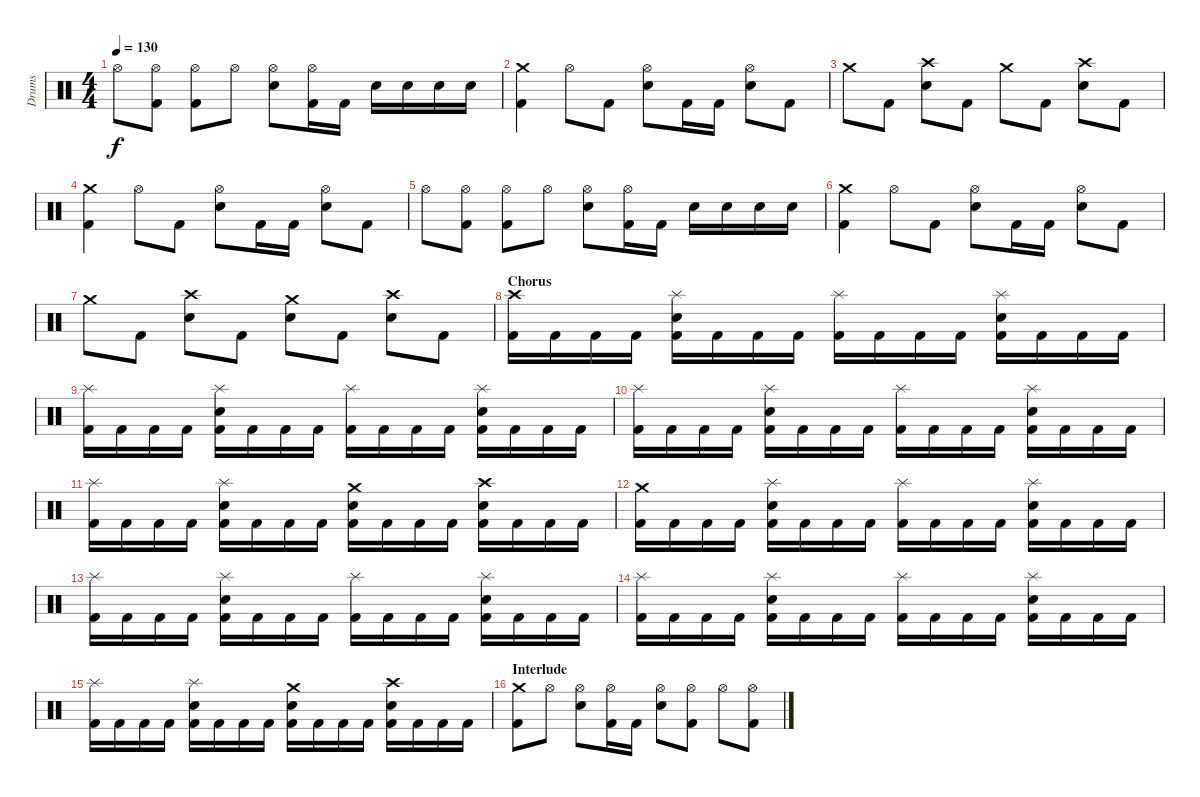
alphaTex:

\track ("Drums" "Drums") {instrument percussion}
\staff {score}
\articulation defaults
\ts (4 4)
\tempo 130
\clef neutral
\ks c "Hi-Hat (open)".8{dy f}
("Kick (hit) 2" "Hi-Hat (open)").8 ("Kick (hit) 2" "Hi-Hat (open)").8 "Hi-Hat (open)".8 ("Electric Snare (hit)" "Hi-Hat (open)").8 ("Kick (hit) 2" "Hi-Hat (open)").16 "Kick (hit) 2".16 "Electric Snare (hit)".16 "Electric Snare (hit)".16 "Electric Snare (hit)".16 "Electric Snare (hit)".16 |
("Kick (hit) 2" "Crash medium (hit)").4 "Hi-Hat (open)".8 "Kick (hit) 2".8 ("Electric Snare (hit)" "Hi-Hat (open)").8 "Kick (hit) 2".16 "Kick (hit) 2".16 ("Electric Snare (hit)" "Hi-Hat (open)").8 "Kick (hit) 2".8 |
"Crash medium (hit)".8 "Kick (hit) 2".8 ("Electric Snare (hit)" "Crash high (hit)").8 "Kick (hit) 2".8 "Crash medium (hit)".8 "Kick (hit) 2".8 ("Electric Snare (hit)" "Crash high (hit)").8 "Kick (hit) 2".8 |
("Kick (hit) 2" "Crash medium (hit)").4 "Hi-Hat (open)".8 "Kick (hit) 2".8 ("Electric Snare (hit)" "Hi-Hat (open)").8 "Kick (hit) 2".16 "Kick (hit) 2".16 ("Electric Snare (hit)" "Hi-Hat (open)").8 "Kick (hit) 2".8 |
"Hi-Hat (open)".8 ("Kick (hit) 2" "Hi-Hat (open)").8 ("Kick (hit) 2" "Hi-Hat (open)").8 "Hi-Hat (open)".8 ("Electric Snare (hit)" "Hi-Hat (open)").8 ("Kick (hit) 2" "Hi-Hat (open)").16 "Kick (hit) 2".16 "Electric Snare (hit)".16 "Electric Snare (hit)".16 "Electric Snare (hit)".16 "Electric Snare (hit)".16 |
("Kick (hit) 2" "Crash medium (hit)").4 "Hi-Hat (open)".8 "Kick (hit) 2".8 ("Electric Snare (hit)" "Hi-Hat (open)").8 "Kick (hit) 2".16 "Kick (hit) 2".16 ("Electric Snare (hit)" "Hi-Hat (open)").8 "Kick (hit) 2".8 |
"Crash medium (hit)".8 "Kick (hit) 2".8 ("Electric Snare (hit)" "Crash high (hit)").8 "Kick (hit) 2".8 ("Electric Snare (hit)" "Crash medium (hit)").8 "Kick (hit) 2".8 ("Electric Snare (hit)" "Crash high (hit)").8 "Kick (hit) 2".8 |
\section ("" "Chorus")
("Kick (hit) 2" "Crash high (hit)").16 "Kick (hit) 2".16 "Kick (hit) 2".16 "Kick (hit) 2".16 ("Kick (hit) 2" "Electric Snare (hit)" "Splash (hit)").16 "Kick (hit) 2".16 "Kick (hit) 2".16 "Kick (hit) 2".16 ("Kick (hit) 2" "Splash (hit)").16 "Kick (hit) 2".16 "Kick (hit) 2".16 "Kick (hit) 2".16 ("Kick (hit) 2" "Electric Snare (hit)" "Splash (hit)").16 "Kick (hit) 2".16 "Kick (hit) 2".16 "Kick (hit) 2".16 |
("Kick (hit) 2" "Splash (hit)").16 "Kick (hit) 2".16 "Kick (hit) 2".16 "Kick (hit) 2".16 ("Kick (hit) 2" "Electric Snare (hit)" "Splash (hit)").16 "Kick (hit) 2".16 "Kick (hit) 2".16 "Kick (hit) 2".16 ("Kick (hit) 2" "Splash (hit)").16 "Kick (hit) 2".16 "Kick (hit) 2".16 "Kick (hit) 2".16 ("Kick (hit) 2" "Electric Snare (hit)" "Splash (hit)").16 "Kick (hit) 2".16 "Kick (hit) 2".16 "Kick (hit) 2".16 |
("Kick (hit) 2" "Splash (hit)").16 "Kick (hit) 2".16 "Kick (hit) 2".16 "Kick (hit) 2".16 ("Kick (hit) 2" "Electric Snare (hit)" "Splash (hit)").16 "Kick (hit) 2".16 "Kick (hit) 2".16 "Kick (hit) 2".16 ("Kick (hit) 2" "Splash (hit)").16 "Kick (hit) 2".16 "Kick (hit) 2".16 "Kick (hit) 2".16 ("Kick (hit) 2" "Electric Snare (hit)" "Splash (hit)").16 "Kick (hit) 2".16 "Kick (hit) 2".16 "Kick (hit) 2".16 |
("Kick (hit) 2" "Splash (hit)").16 "Kick (hit) 2".16 "Kick (hit) 2".16 "Kick (hit) 2".16 ("Kick (hit) 2" "Electric Snare (hit)" "Splash (hit)").16 "Kick (hit) 2".16 "Kick (hit) 2".16 "Kick (hit) 2".16 ("Kick (hit) 2" "Electric Snare (hit)" "Crash medium (hit)").16 "Kick (hit) 2".16 "Kick (hit) 2".16 "Kick (hit) 2".16 ("Kick (hit) 2" "Electric Snare (hit)" "Crash high (hit)").16 "Kick (hit) 2".16 "Kick (hit) 2".16 "Kick (hit) 2".16 |
("Kick (hit) 2" "Crash medium (hit)").16 "Kick (hit) 2".16 "Kick (hit) 2".16 "Kick (hit) 2".16 ("Kick (hit) 2" "Electric Snare (hit)" "Splash (hit)").16 "Kick (hit) 2".16 "Kick (hit) 2".16 "Kick (hit) 2".16 ("Kick (hit) 2" "Splash (hit)").16 "Kick (hit) 2".16 "Kick (hit) 2".16 "Kick (hit) 2".16 ("Kick (hit) 2" "Electric Snare (hit)" "Splash (hit)").16 "Kick (hit) 2".16 "Kick (hit) 2".16 "Kick (hit) 2".16 |
("Kick (hit) 2" "Splash (hit)").16 "Kick (hit) 2".16 "Kick (hit) 2".16 "Kick (hit) 2".16 ("Kick (hit) 2" "Electric Snare (hit)" "Splash (hit)").16 "Kick (hit) 2".16 "Kick (hit) 2".16 "Kick (hit) 2".16 ("Kick (hit) 2" "Splash (hit)").16 "Kick (hit) 2".16 "Kick (hit) 2".16 "Kick (hit) 2".16 ("Kick (hit) 2" "Electric Snare (hit)" "Splash (hit)").16 "Kick (hit) 2".16 "Kick (hit) 2".16 "Kick (hit) 2".16 |
("Kick (hit) 2" "Splash (hit)").16 "Kick (hit) 2".16 "Kick (hit) 2".16 "Kick (hit) 2".16 ("Kick (hit) 2" "Electric Snare (hit)" "Splash (hit)").16 "Kick (hit) 2".16 "Kick (hit) 2".16 "Kick (hit) 2".16 ("Kick (hit) 2" "Splash (hit)").16 "Kick (hit) 2".16 "Kick (hit) 2".16 "Kick (hit) 2".16 ("Kick (hit) 2" "Electric Snare (hit)" "Splash (hit)").16 "Kick (hit) 2".16 "Kick (hit) 2".16 "Kick (hit) 2".16 |
("Kick (hit) 2" "Splash (hit)").16 "Kick (hit) 2".16 "Kick (hit) 2".16 "Kick (hit) 2".16 ("Kick (hit) 2" "Electric Snare (hit)" "Splash (hit)").16 "Kick (hit) 2".16 "Kick (hit) 2".16 "Kick (hit) 2".16 ("Kick (hit) 2" "Electric Snare (hit)" "Crash medium (hit)").16 "Kick (hit) 2".16 "Kick (hit) 2".16 "Kick (hit) 2".16 ("Kick (hit) 2" "Electric Snare (hit)" "Crash high (hit)").16 "Kick (hit) 2".16 "Kick (hit) 2".16 "Kick (hit) 2".16 |
\section ("" "Interlude")
("Kick (hit) 2" "Crash medium (hit)").8 "Hi-Hat (open)".8 ("Electric Snare (hit)" "Hi-Hat (open)").8 ("Kick (hit) 2" "Hi-Hat (open)").16 "Kick (hit) 2".16 ("Electric Snare (hit)" "Hi-Hat (open)").8 ("Kick (hit) 2" "Hi-Hat (open)").8 "Hi-Hat (open)".8 ("Kick (hit) 2" "Hi-Hat (open)").8
